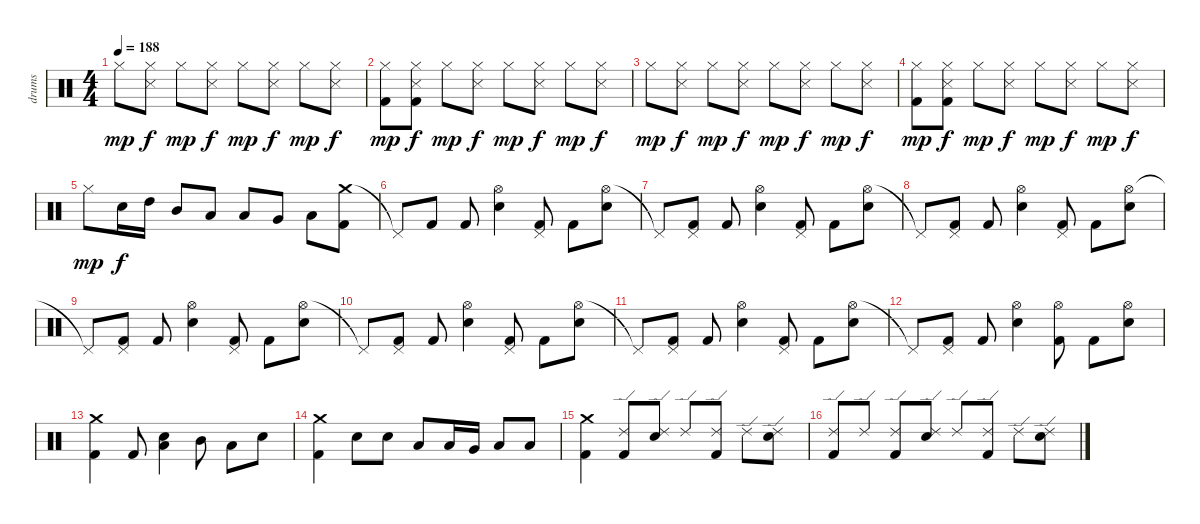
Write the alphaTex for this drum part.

\track ("drums" "drums") {instrument percussion}
\staff {score}
\articulation defaults
\ts (4 4)
\tempo 188
\clef neutral
\ks c "Hi-Hat (closed)".8{dy mp}
("Hi-Hat (closed)" "Snare (side stick) 3").8{dy f} "Hi-Hat (closed)".8{dy mp} ("Hi-Hat (closed)" "Snare (side stick) 3").8{dy f} "Hi-Hat (closed)".8{dy mp} ("Hi-Hat (closed)" "Snare (side stick) 3").8{dy f} "Hi-Hat (closed)".8{dy mp} ("Hi-Hat (closed)" "Snare (side stick) 3").8{dy f} |
("Hi-Hat (closed)" "Kick (hit) 2").8{dy mp} ("Hi-Hat (closed)" "Snare (side stick) 3" "Kick (hit) 2").8{dy f} "Hi-Hat (closed)".8{dy mp} ("Hi-Hat (closed)" "Snare (side stick) 3").8{dy f} "Hi-Hat (closed)".8{dy mp} ("Hi-Hat (closed)" "Snare (side stick) 3").8{dy f} "Hi-Hat (closed)".8{dy mp} ("Hi-Hat (closed)" "Snare (side stick) 3").8{dy f} |
"Hi-Hat (closed)".8{dy mp} ("Hi-Hat (closed)" "Snare (side stick) 3").8{dy f} "Hi-Hat (closed)".8{dy mp} ("Hi-Hat (closed)" "Snare (side stick) 3").8{dy f} "Hi-Hat (closed)".8{dy mp} ("Hi-Hat (closed)" "Snare (side stick) 3").8{dy f} "Hi-Hat (closed)".8{dy mp} ("Hi-Hat (closed)" "Snare (side stick) 3").8{dy f} |
("Hi-Hat (closed)" "Kick (hit) 2").8{dy mp} ("Hi-Hat (closed)" "Snare (side stick) 3" "Kick (hit) 2").8{dy f} "Hi-Hat (closed)".8{dy mp} ("Hi-Hat (closed)" "Snare (side stick) 3").8{dy f} "Hi-Hat (closed)".8{dy mp} ("Hi-Hat (closed)" "Snare (side stick) 3").8{dy f} "Hi-Hat (closed)".8{dy mp} ("Hi-Hat (closed)" "Snare (side stick) 3").8{dy f} |
"Hi-Hat (closed)".8{dy mp} "Electric Snare (hit)".16{dy f} "High Tom (hit)".16 "Mid Tom (hit)".8 "Low Tom (hit)".8 "Low Tom (hit)".8 "Very Low Tom (hit)".8 "Low Floor Tom (hit)".8 ("Crash medium (hit)" "Kick (hit) 2").8 |
"Pedal Hi-Hat (hit)"{t}.8 "Kick (hit) 2".8 "Kick (hit) 2".8 ("Hi-Hat (open)" "Electric Snare (hit)").4 ("Pedal Hi-Hat (hit)" "Kick (hit) 2").8 "Kick (hit) 2".8 ("Hi-Hat (open)" "Electric Snare (hit)").8 |
"Pedal Hi-Hat (hit)"{t}.8 ("Pedal Hi-Hat (hit)" "Kick (hit) 2").8 "Kick (hit) 2".8 ("Hi-Hat (open)" "Electric Snare (hit)").4 ("Pedal Hi-Hat (hit)" "Kick (hit) 2").8 "Kick (hit) 2".8 ("Hi-Hat (open)" "Electric Snare (hit)").8 |
"Pedal Hi-Hat (hit)"{t}.8 ("Pedal Hi-Hat (hit)" "Kick (hit) 2").8 "Kick (hit) 2".8 ("Hi-Hat (open)" "Electric Snare (hit)").4 ("Pedal Hi-Hat (hit)" "Kick (hit) 2").8 "Kick (hit) 2".8 ("Hi-Hat (open)" "Electric Snare (hit)").8 |
"Pedal Hi-Hat (hit)"{t}.8 ("Pedal Hi-Hat (hit)" "Kick (hit) 2").8 "Kick (hit) 2".8 ("Hi-Hat (open)" "Electric Snare (hit)").4 ("Pedal Hi-Hat (hit)" "Kick (hit) 2").8 "Kick (hit) 2".8 ("Hi-Hat (open)" "Electric Snare (hit)").8 |
"Pedal Hi-Hat (hit)"{t}.8 ("Pedal Hi-Hat (hit)" "Kick (hit) 2").8 "Kick (hit) 2".8 ("Hi-Hat (open)" "Electric Snare (hit)").4 ("Pedal Hi-Hat (hit)" "Kick (hit) 2").8 "Kick (hit) 2".8 ("Hi-Hat (open)" "Electric Snare (hit)").8 |
"Pedal Hi-Hat (hit)"{t}.8 ("Pedal Hi-Hat (hit)" "Kick (hit) 2").8 "Kick (hit) 2".8 ("Hi-Hat (open)" "Electric Snare (hit)").4 ("Pedal Hi-Hat (hit)" "Kick (hit) 2").8 "Kick (hit) 2".8 ("Hi-Hat (open)" "Electric Snare (hit)").8 |
"Pedal Hi-Hat (hit)"{t}.8 ("Pedal Hi-Hat (hit)" "Kick (hit) 2").8 "Kick (hit) 2".8 ("Hi-Hat (open)" "Electric Snare (hit)").4 ("Hi-Hat (open)" "Kick (hit) 2").8 "Kick (hit) 2".8 ("Hi-Hat (open)" "Electric Snare (hit)").8 |
("Crash medium (hit)" "Kick (hit) 2").4 "Kick (hit) 2".8 ("Low Tom (hit)" "Electric Snare (hit)").4 "Mid Tom (hit)".8 "Low Tom (hit)".8 "Electric Snare (hit)".8 |
("Crash medium (hit)" "Kick (hit) 2").4 "Electric Snare (hit)".8 "Electric Snare (hit)".8 "Low Tom (hit)".8 "Low Tom (hit)".16 "Very Low Tom (hit)".16 "Low Floor Tom (hit)".8 "Low Floor Tom (hit)".8 |
("Crash medium (hit)" "Kick (hit) 2").4 ("Ride (edge) 2" "Kick (hit) 2").8 ("Ride (edge) 2" "Electric Snare (hit)").8 "Ride (edge) 2".8 ("Ride (edge) 2" "Kick (hit) 2").8 "Ride (edge) 2".8 ("Ride (edge) 2" "Electric Snare (hit)").8 |
("Ride (edge) 2" "Kick (hit) 2").8 "Ride (edge) 2".8 ("Ride (edge) 2" "Kick (hit) 2").8 ("Ride (edge) 2" "Electric Snare (hit)").8 "Ride (edge) 2".8 ("Ride (edge) 2" "Kick (hit) 2").8 "Ride (edge) 2".8 ("Ride (edge) 2" "Electric Snare (hit)").8
